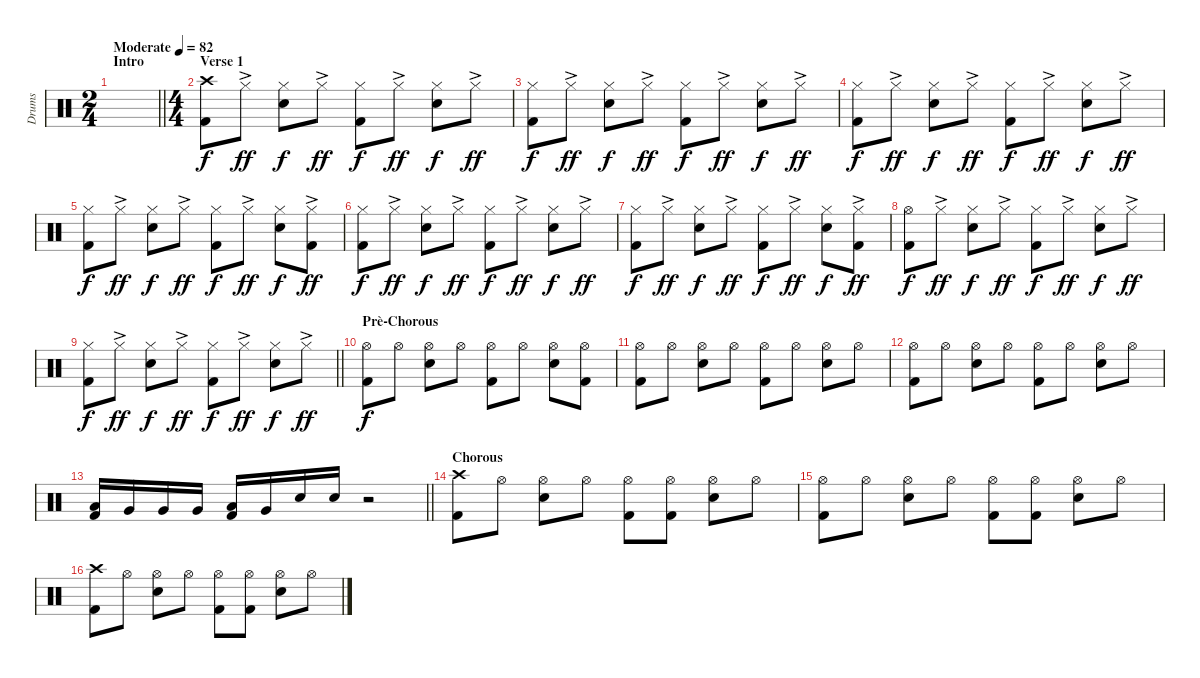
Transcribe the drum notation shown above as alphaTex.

\track ("Drums" "Drums") {instrument percussion}
\staff {score}
\articulation defaults
\ts (2 4)
\section ("" "Intro")
\tempo (82 "Moderate")
\clef neutral
\barLineRight lightlight
\ks c
|
\ts (4 4)
\section ("" "Verse 1")
("Crash high (hit)" "Kick (hit) 2").8 "Hi-Hat (closed)"{ac}.8{dy ff} ("Hi-Hat (closed)" "Snare (hit) 2").8{dy f} "Hi-Hat (closed)"{ac}.8{dy ff} ("Hi-Hat (closed)" "Kick (hit) 2").8{dy f} "Hi-Hat (closed)"{ac}.8{dy ff} ("Hi-Hat (closed)" "Snare (hit) 2").8{dy f} "Hi-Hat (closed)"{ac}.8{dy ff} |
("Hi-Hat (closed)" "Kick (hit) 2").8{dy f} "Hi-Hat (closed)"{ac}.8{dy ff} ("Hi-Hat (closed)" "Snare (hit) 2").8{dy f} "Hi-Hat (closed)"{ac}.8{dy ff} ("Hi-Hat (closed)" "Kick (hit) 2").8{dy f} "Hi-Hat (closed)"{ac}.8{dy ff} ("Hi-Hat (closed)" "Snare (hit) 2").8{dy f} "Hi-Hat (closed)"{ac}.8{dy ff} |
("Hi-Hat (closed)" "Kick (hit) 2").8{dy f} "Hi-Hat (closed)"{ac}.8{dy ff} ("Hi-Hat (closed)" "Snare (hit) 2").8{dy f} "Hi-Hat (closed)"{ac}.8{dy ff} ("Hi-Hat (closed)" "Kick (hit) 2").8{dy f} "Hi-Hat (closed)"{ac}.8{dy ff} ("Hi-Hat (closed)" "Snare (hit) 2").8{dy f} "Hi-Hat (closed)"{ac}.8{dy ff} |
("Hi-Hat (closed)" "Kick (hit) 2").8{dy f} "Hi-Hat (closed)"{ac}.8{dy ff} ("Hi-Hat (closed)" "Snare (hit) 2").8{dy f} "Hi-Hat (closed)"{ac}.8{dy ff} ("Hi-Hat (closed)" "Kick (hit) 2").8{dy f} "Hi-Hat (closed)"{ac}.8{dy ff} ("Hi-Hat (closed)" "Snare (hit) 2").8{dy f} ("Hi-Hat (closed)"{ac} "Kick (hit) 2").8{dy ff} |
("Hi-Hat (closed)" "Kick (hit) 2").8{dy f} "Hi-Hat (closed)"{ac}.8{dy ff} ("Hi-Hat (closed)" "Snare (hit) 2").8{dy f} "Hi-Hat (closed)"{ac}.8{dy ff} ("Hi-Hat (closed)" "Kick (hit) 2").8{dy f} "Hi-Hat (closed)"{ac}.8{dy ff} ("Hi-Hat (closed)" "Snare (hit) 2").8{dy f} "Hi-Hat (closed)"{ac}.8{dy ff} |
("Hi-Hat (closed)" "Kick (hit) 2").8{dy f} "Hi-Hat (closed)"{ac}.8{dy ff} ("Hi-Hat (closed)" "Snare (hit) 2").8{dy f} "Hi-Hat (closed)"{ac}.8{dy ff} ("Hi-Hat (closed)" "Kick (hit) 2").8{dy f} "Hi-Hat (closed)"{ac}.8{dy ff} ("Hi-Hat (closed)" "Snare (hit) 2").8{dy f} ("Hi-Hat (closed)"{ac} "Kick (hit) 2").8{dy ff} |
("Hi-Hat (open)" "Kick (hit) 2").8{dy f} "Hi-Hat (closed)"{ac}.8{dy ff} ("Hi-Hat (closed)" "Snare (hit) 2").8{dy f} "Hi-Hat (closed)"{ac}.8{dy ff} ("Hi-Hat (closed)" "Kick (hit) 2").8{dy f} "Hi-Hat (closed)"{ac}.8{dy ff} ("Hi-Hat (closed)" "Snare (hit) 2").8{dy f} "Hi-Hat (closed)"{ac}.8{dy ff} |
\barLineRight lightlight
("Hi-Hat (closed)" "Kick (hit) 2").8{dy f} "Hi-Hat (closed)"{ac}.8{dy ff} ("Hi-Hat (closed)" "Snare (hit) 2").8{dy f} "Hi-Hat (closed)"{ac}.8{dy ff} ("Hi-Hat (closed)" "Kick (hit) 2").8{dy f} "Hi-Hat (closed)"{ac}.8{dy ff} ("Hi-Hat (closed)" "Snare (hit) 2").8{dy f} "Hi-Hat (closed)"{ac}.8{dy ff} |
\section ("" "Prè-Chorous")
("Hi-Hat (open)" "Kick (hit) 2").8{dy f} "Hi-Hat (open)".8 ("Hi-Hat (open)" "Snare (hit) 2").8 "Hi-Hat (open)".8 ("Hi-Hat (open)" "Kick (hit) 2").8 "Hi-Hat (open)".8 ("Hi-Hat (open)" "Snare (hit) 2").8 ("Hi-Hat (open)" "Kick (hit) 2").8 |
("Hi-Hat (open)" "Kick (hit) 2").8 "Hi-Hat (open)".8 ("Hi-Hat (open)" "Snare (hit) 2").8 "Hi-Hat (open)".8 ("Hi-Hat (open)" "Kick (hit) 2").8 "Hi-Hat (open)".8 ("Hi-Hat (open)" "Snare (hit) 2").8 "Hi-Hat (open)".8 |
("Hi-Hat (open)" "Kick (hit) 2").8 "Hi-Hat (open)".8 ("Hi-Hat (open)" "Snare (hit) 2").8 "Hi-Hat (open)".8 ("Hi-Hat (open)" "Kick (hit) 2").8 "Hi-Hat (open)".8 ("Hi-Hat (open)" "Snare (hit) 2").8 "Hi-Hat (open)".8 |
\barLineRight lightlight
("Low Tom (hit)" "Kick (hit) 2").16 "Very Low Tom (hit)".16 "Very Low Tom (hit)".16 "Very Low Tom (hit)".16 ("Low Tom (hit)" "Kick (hit) 2").16 "Very Low Tom (hit)".16 "Snare (hit) 2".16 "Snare (hit) 2".16 r.2 |
\section ("" "Chorous")
("Crash high (hit)" "Kick (hit) 2").8 "Hi-Hat (open)".8 ("Hi-Hat (open)" "Snare (hit) 2").8 "Hi-Hat (open)".8 ("Hi-Hat (open)" "Kick (hit) 2").8 ("Hi-Hat (open)" "Kick (hit) 2").8 ("Hi-Hat (open)" "Snare (hit) 2").8 "Hi-Hat (open)".8 |
("Hi-Hat (open)" "Kick (hit) 2").8 "Hi-Hat (open)".8 ("Hi-Hat (open)" "Snare (hit) 2").8 "Hi-Hat (open)".8 ("Hi-Hat (open)" "Kick (hit) 2").8 ("Hi-Hat (open)" "Kick (hit) 2").8 ("Hi-Hat (open)" "Snare (hit) 2").8 "Hi-Hat (open)".8 |
("Crash high (hit)" "Kick (hit) 2").8 "Hi-Hat (open)".8 ("Hi-Hat (open)" "Snare (hit) 2").8 "Hi-Hat (open)".8 ("Hi-Hat (open)" "Kick (hit) 2").8 ("Hi-Hat (open)" "Kick (hit) 2").8 ("Hi-Hat (open)" "Snare (hit) 2").8 "Hi-Hat (open)".8
